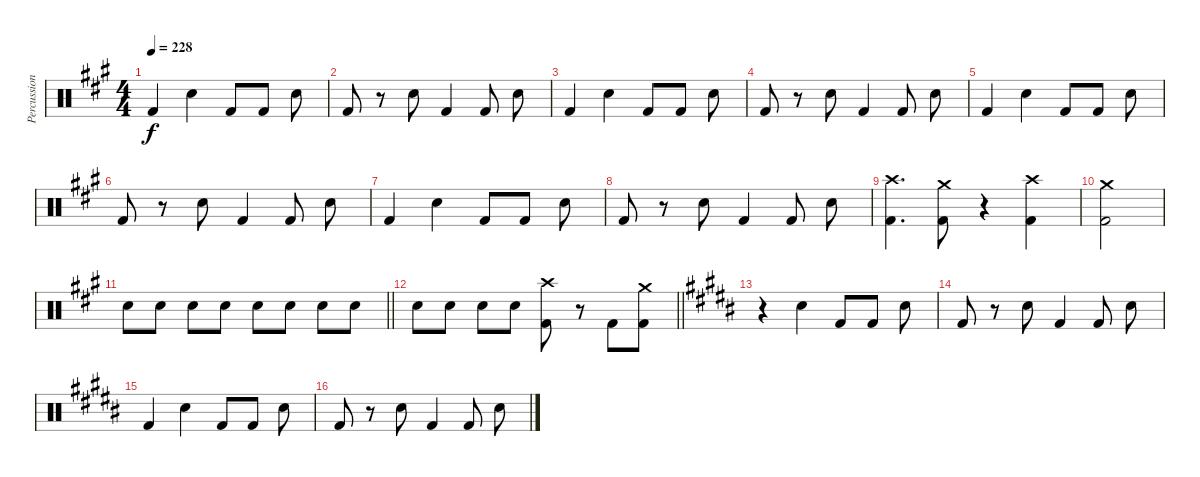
\track ("Percussion" "Percussion") {instrument percussion}
\staff {score}
\articulation defaults
\ts (4 4)
\tempo 228
\clef neutral
\ks a "Kick (hit) 2".4{dy f} "Snare (hit) 2".4 "Kick (hit) 2".8 "Kick (hit) 2".8 "Snare (hit) 2".8
|
"Kick (hit) 2".8 r.8 "Snare (hit) 2".8 "Kick (hit) 2".4 "Kick (hit) 2".8 "Snare (hit) 2".8 |
"Kick (hit) 2".4 "Snare (hit) 2".4 "Kick (hit) 2".8 "Kick (hit) 2".8 "Snare (hit) 2".8 |
"Kick (hit) 2".8 r.8 "Snare (hit) 2".8 "Kick (hit) 2".4 "Kick (hit) 2".8 "Snare (hit) 2".8 |
"Kick (hit) 2".4 "Snare (hit) 2".4 "Kick (hit) 2".8 "Kick (hit) 2".8 "Snare (hit) 2".8 |
"Kick (hit) 2".8 r.8 "Snare (hit) 2".8 "Kick (hit) 2".4 "Kick (hit) 2".8 "Snare (hit) 2".8 |
"Kick (hit) 2".4 "Snare (hit) 2".4 "Kick (hit) 2".8 "Kick (hit) 2".8 "Snare (hit) 2".8 |
"Kick (hit) 2".8 r.8 "Snare (hit) 2".8 "Kick (hit) 2".4 "Kick (hit) 2".8 "Snare (hit) 2".8 |
("Crash high (hit)" "Kick (hit) 2").4{d} ("Crash medium (hit)" "Kick (hit) 2").8 r.4 ("Crash high (hit)" "Kick (hit) 2").4 |
("Crash medium (hit)" "Kick (hit) 2").2 |
\barLineRight lightlight "Snare (hit) 2".8 "Snare (hit) 2".8 "Snare (hit) 2".8 "Snare (hit) 2".8 "Snare (hit) 2".8 "Snare (hit) 2".8 "Snare (hit) 2".8 "Snare (hit) 2".8
|
\barLineRight lightlight "Snare (hit) 2".8 "Snare (hit) 2".8 "Snare (hit) 2".8 "Snare (hit) 2".8
("Kick (hit) 2" "Crash high (hit)").8 r.8 "Kick (hit) 2".8 ("Crash medium (hit)" "Kick (hit) 2").8 |
\ks b
r.4 "Snare (hit) 2".4 "Kick (hit) 2".8 "Kick (hit) 2".8 "Snare (hit) 2".8 |
\ks g#minor "Kick (hit) 2".8
r.8 "Snare (hit) 2".8 "Kick (hit) 2".4 "Kick (hit) 2".8 "Snare (hit) 2".8 |
"Kick (hit) 2".4 "Snare (hit) 2".4 "Kick (hit) 2".8 "Kick (hit) 2".8 "Snare (hit) 2".8 |
\ks b "Kick (hit) 2".8
r.8 "Snare (hit) 2".8 "Kick (hit) 2".4 "Kick (hit) 2".8 "Snare (hit) 2".8
